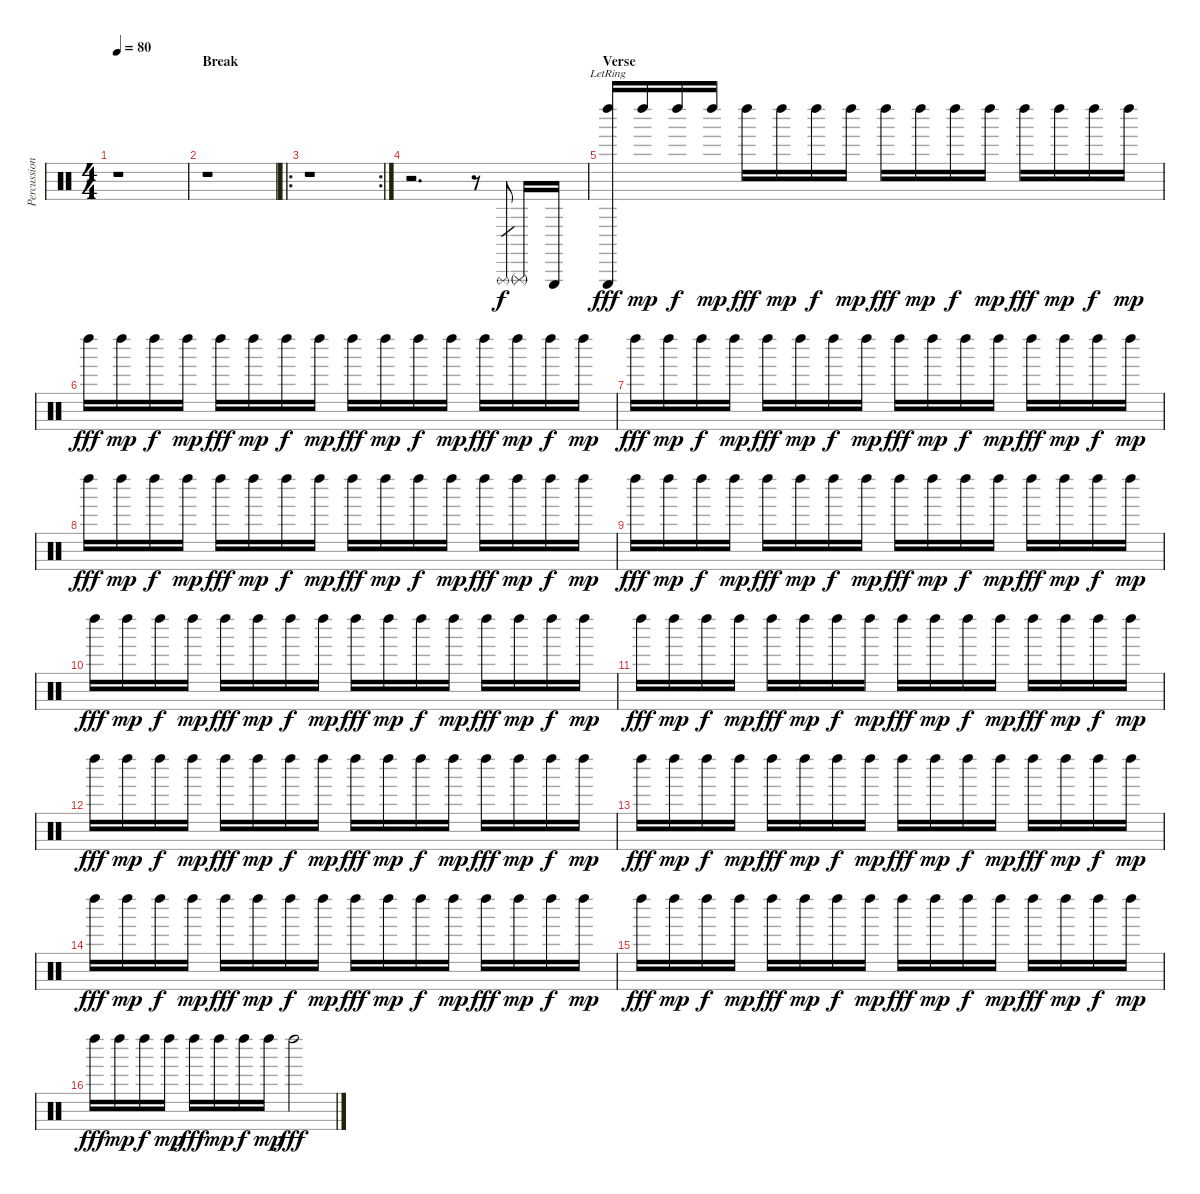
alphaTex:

\track ("Percussion" "Percussion") {instrument percussion}
\staff {score}
\articulation defaults
\ts (4 4)
\tempo 80
\clef neutral
\ks c
r.1{dy f} |
\section ("" "Break")
r.1 |
\ro
\rc 2
r.1 |
r.2{d} r.8 "Triangle (rnute)".8{gr} "Triangle (rnute)".16 "Triangle (hit)".16 |
\section ("" "Verse")
("Triangle (hit)"{lr} "Left Maraca (hit)").16{dy fff} "Left Maraca (hit)".16{dy mp} "Left Maraca (hit)".16{dy f} "Left Maraca (hit)".16{dy mp} "Left Maraca (hit)".16{dy fff} "Left Maraca (hit)".16{dy mp} "Left Maraca (hit)".16{dy f} "Left Maraca (hit)".16{dy mp} "Left Maraca (hit)".16{dy fff} "Left Maraca (hit)".16{dy mp} "Left Maraca (hit)".16{dy f} "Left Maraca (hit)".16{dy mp} "Left Maraca (hit)".16{dy fff} "Left Maraca (hit)".16{dy mp} "Left Maraca (hit)".16{dy f} "Left Maraca (hit)".16{dy mp} |
"Left Maraca (hit)".16{dy fff} "Left Maraca (hit)".16{dy mp} "Left Maraca (hit)".16{dy f} "Left Maraca (hit)".16{dy mp} "Left Maraca (hit)".16{dy fff} "Left Maraca (hit)".16{dy mp} "Left Maraca (hit)".16{dy f} "Left Maraca (hit)".16{dy mp} "Left Maraca (hit)".16{dy fff} "Left Maraca (hit)".16{dy mp} "Left Maraca (hit)".16{dy f} "Left Maraca (hit)".16{dy mp} "Left Maraca (hit)".16{dy fff} "Left Maraca (hit)".16{dy mp} "Left Maraca (hit)".16{dy f} "Left Maraca (hit)".16{dy mp} |
"Left Maraca (hit)".16{dy fff} "Left Maraca (hit)".16{dy mp} "Left Maraca (hit)".16{dy f} "Left Maraca (hit)".16{dy mp} "Left Maraca (hit)".16{dy fff} "Left Maraca (hit)".16{dy mp} "Left Maraca (hit)".16{dy f} "Left Maraca (hit)".16{dy mp} "Left Maraca (hit)".16{dy fff} "Left Maraca (hit)".16{dy mp} "Left Maraca (hit)".16{dy f} "Left Maraca (hit)".16{dy mp} "Left Maraca (hit)".16{dy fff} "Left Maraca (hit)".16{dy mp} "Left Maraca (hit)".16{dy f} "Left Maraca (hit)".16{dy mp} |
"Left Maraca (hit)".16{dy fff} "Left Maraca (hit)".16{dy mp} "Left Maraca (hit)".16{dy f} "Left Maraca (hit)".16{dy mp} "Left Maraca (hit)".16{dy fff} "Left Maraca (hit)".16{dy mp} "Left Maraca (hit)".16{dy f} "Left Maraca (hit)".16{dy mp} "Left Maraca (hit)".16{dy fff} "Left Maraca (hit)".16{dy mp} "Left Maraca (hit)".16{dy f} "Left Maraca (hit)".16{dy mp} "Left Maraca (hit)".16{dy fff} "Left Maraca (hit)".16{dy mp} "Left Maraca (hit)".16{dy f} "Left Maraca (hit)".16{dy mp} |
"Left Maraca (hit)".16{dy fff} "Left Maraca (hit)".16{dy mp} "Left Maraca (hit)".16{dy f} "Left Maraca (hit)".16{dy mp} "Left Maraca (hit)".16{dy fff} "Left Maraca (hit)".16{dy mp} "Left Maraca (hit)".16{dy f} "Left Maraca (hit)".16{dy mp} "Left Maraca (hit)".16{dy fff} "Left Maraca (hit)".16{dy mp} "Left Maraca (hit)".16{dy f} "Left Maraca (hit)".16{dy mp} "Left Maraca (hit)".16{dy fff} "Left Maraca (hit)".16{dy mp} "Left Maraca (hit)".16{dy f} "Left Maraca (hit)".16{dy mp} |
"Left Maraca (hit)".16{dy fff} "Left Maraca (hit)".16{dy mp} "Left Maraca (hit)".16{dy f} "Left Maraca (hit)".16{dy mp} "Left Maraca (hit)".16{dy fff} "Left Maraca (hit)".16{dy mp} "Left Maraca (hit)".16{dy f} "Left Maraca (hit)".16{dy mp} "Left Maraca (hit)".16{dy fff} "Left Maraca (hit)".16{dy mp} "Left Maraca (hit)".16{dy f} "Left Maraca (hit)".16{dy mp} "Left Maraca (hit)".16{dy fff} "Left Maraca (hit)".16{dy mp} "Left Maraca (hit)".16{dy f} "Left Maraca (hit)".16{dy mp} |
"Left Maraca (hit)".16{dy fff} "Left Maraca (hit)".16{dy mp} "Left Maraca (hit)".16{dy f} "Left Maraca (hit)".16{dy mp} "Left Maraca (hit)".16{dy fff} "Left Maraca (hit)".16{dy mp} "Left Maraca (hit)".16{dy f} "Left Maraca (hit)".16{dy mp} "Left Maraca (hit)".16{dy fff} "Left Maraca (hit)".16{dy mp} "Left Maraca (hit)".16{dy f} "Left Maraca (hit)".16{dy mp} "Left Maraca (hit)".16{dy fff} "Left Maraca (hit)".16{dy mp} "Left Maraca (hit)".16{dy f} "Left Maraca (hit)".16{dy mp} |
"Left Maraca (hit)".16{dy fff} "Left Maraca (hit)".16{dy mp} "Left Maraca (hit)".16{dy f} "Left Maraca (hit)".16{dy mp} "Left Maraca (hit)".16{dy fff} "Left Maraca (hit)".16{dy mp} "Left Maraca (hit)".16{dy f} "Left Maraca (hit)".16{dy mp} "Left Maraca (hit)".16{dy fff} "Left Maraca (hit)".16{dy mp} "Left Maraca (hit)".16{dy f} "Left Maraca (hit)".16{dy mp} "Left Maraca (hit)".16{dy fff} "Left Maraca (hit)".16{dy mp} "Left Maraca (hit)".16{dy f} "Left Maraca (hit)".16{dy mp} |
"Left Maraca (hit)".16{dy fff} "Left Maraca (hit)".16{dy mp} "Left Maraca (hit)".16{dy f} "Left Maraca (hit)".16{dy mp} "Left Maraca (hit)".16{dy fff} "Left Maraca (hit)".16{dy mp} "Left Maraca (hit)".16{dy f} "Left Maraca (hit)".16{dy mp} "Left Maraca (hit)".16{dy fff} "Left Maraca (hit)".16{dy mp} "Left Maraca (hit)".16{dy f} "Left Maraca (hit)".16{dy mp} "Left Maraca (hit)".16{dy fff} "Left Maraca (hit)".16{dy mp} "Left Maraca (hit)".16{dy f} "Left Maraca (hit)".16{dy mp} |
"Left Maraca (hit)".16{dy fff} "Left Maraca (hit)".16{dy mp} "Left Maraca (hit)".16{dy f} "Left Maraca (hit)".16{dy mp} "Left Maraca (hit)".16{dy fff} "Left Maraca (hit)".16{dy mp} "Left Maraca (hit)".16{dy f} "Left Maraca (hit)".16{dy mp} "Left Maraca (hit)".16{dy fff} "Left Maraca (hit)".16{dy mp} "Left Maraca (hit)".16{dy f} "Left Maraca (hit)".16{dy mp} "Left Maraca (hit)".16{dy fff} "Left Maraca (hit)".16{dy mp} "Left Maraca (hit)".16{dy f} "Left Maraca (hit)".16{dy mp} |
"Left Maraca (hit)".16{dy fff} "Left Maraca (hit)".16{dy mp} "Left Maraca (hit)".16{dy f} "Left Maraca (hit)".16{dy mp} "Left Maraca (hit)".16{dy fff} "Left Maraca (hit)".16{dy mp} "Left Maraca (hit)".16{dy f} "Left Maraca (hit)".16{dy mp} "Left Maraca (hit)".16{dy fff} "Left Maraca (hit)".16{dy mp} "Left Maraca (hit)".16{dy f} "Left Maraca (hit)".16{dy mp} "Left Maraca (hit)".16{dy fff} "Left Maraca (hit)".16{dy mp} "Left Maraca (hit)".16{dy f} "Left Maraca (hit)".16{dy mp} |
"Left Maraca (hit)".16{dy fff} "Left Maraca (hit)".16{dy mp} "Left Maraca (hit)".16{dy f} "Left Maraca (hit)".16{dy mp} "Left Maraca (hit)".16{dy fff} "Left Maraca (hit)".16{dy mp} "Left Maraca (hit)".16{dy f} "Left Maraca (hit)".16{dy mp} "Left Maraca (hit)".2{dy fff}
